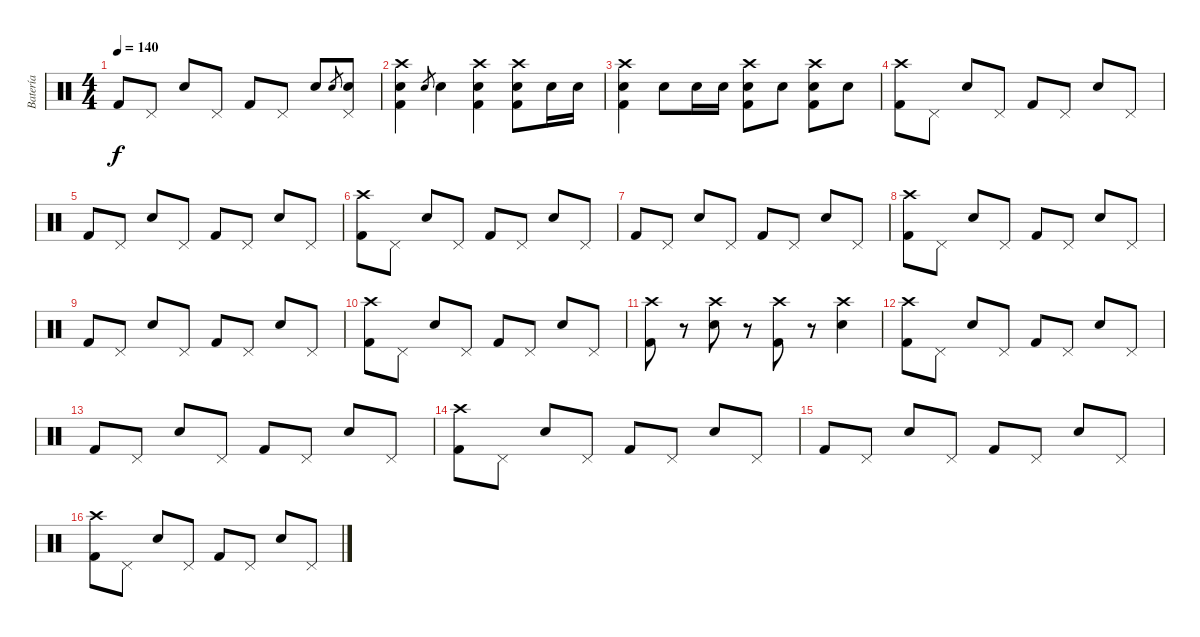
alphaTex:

\track ("Batería" "Batería") {instrument percussion}
\staff {score}
\articulation defaults
\ts (4 4)
\tempo 140
\clef neutral
\ks c "Kick (hit) 2".8{dy f} "Pedal Hi-Hat (hit)".8 "Snare (hit) 2".8 "Pedal Hi-Hat (hit)".8 "Kick (hit) 2".8 "Pedal Hi-Hat (hit)".8 "Snare (hit) 2".8 "Snare (hit) 2".8{gr}
("Pedal Hi-Hat (hit)" "Snare (hit) 2").8 |
("Crash high (hit)" "Snare (hit) 2" "Kick (hit) 2").4 "Snare (hit) 2".8{gr} "Snare (hit) 2".4 ("Crash high (hit)" "Snare (hit) 2" "Kick (hit) 2").4 ("Crash high (hit)" "Snare (hit) 2" "Kick (hit) 2").8 "Snare (hit) 2".16 "Snare (hit) 2".16 |
("Crash high (hit)" "Snare (hit) 2" "Kick (hit) 2").4 "Snare (hit) 2".8 "Snare (hit) 2".16 "Snare (hit) 2".16 ("Crash high (hit)" "Snare (hit) 2" "Kick (hit) 2").8 "Snare (hit) 2".8 ("Crash high (hit)" "Snare (hit) 2" "Kick (hit) 2").8 "Snare (hit) 2".8 |
("Crash high (hit)" "Kick (hit) 2").8 "Pedal Hi-Hat (hit)".8 "Snare (hit) 2".8 "Pedal Hi-Hat (hit)".8 "Kick (hit) 2".8 "Pedal Hi-Hat (hit)".8 "Snare (hit) 2".8 "Pedal Hi-Hat (hit)".8 |
"Kick (hit) 2".8 "Pedal Hi-Hat (hit)".8 "Snare (hit) 2".8 "Pedal Hi-Hat (hit)".8 "Kick (hit) 2".8 "Pedal Hi-Hat (hit)".8 "Snare (hit) 2".8 "Pedal Hi-Hat (hit)".8 |
("Crash high (hit)" "Kick (hit) 2").8 "Pedal Hi-Hat (hit)".8 "Snare (hit) 2".8 "Pedal Hi-Hat (hit)".8 "Kick (hit) 2".8 "Pedal Hi-Hat (hit)".8 "Snare (hit) 2".8 "Pedal Hi-Hat (hit)".8 |
"Kick (hit) 2".8 "Pedal Hi-Hat (hit)".8 "Snare (hit) 2".8 "Pedal Hi-Hat (hit)".8 "Kick (hit) 2".8 "Pedal Hi-Hat (hit)".8 "Snare (hit) 2".8 "Pedal Hi-Hat (hit)".8 |
("Crash high (hit)" "Kick (hit) 2").8 "Pedal Hi-Hat (hit)".8 "Snare (hit) 2".8 "Pedal Hi-Hat (hit)".8 "Kick (hit) 2".8 "Pedal Hi-Hat (hit)".8 "Snare (hit) 2".8 "Pedal Hi-Hat (hit)".8 |
"Kick (hit) 2".8 "Pedal Hi-Hat (hit)".8 "Snare (hit) 2".8 "Pedal Hi-Hat (hit)".8 "Kick (hit) 2".8 "Pedal Hi-Hat (hit)".8 "Snare (hit) 2".8 "Pedal Hi-Hat (hit)".8 |
("Crash high (hit)" "Kick (hit) 2").8 "Pedal Hi-Hat (hit)".8 "Snare (hit) 2".8 "Pedal Hi-Hat (hit)".8 "Kick (hit) 2".8 "Pedal Hi-Hat (hit)".8 "Snare (hit) 2".8 "Pedal Hi-Hat (hit)".8 |
("Crash high (hit)" "Kick (hit) 2").8 r.8 ("Crash high (hit)" "Snare (hit) 2").8 r.8 ("Crash high (hit)" "Kick (hit) 2").8 r.8 ("Crash high (hit)" "Snare (hit) 2").4 |
("Crash high (hit)" "Kick (hit) 2").8 "Pedal Hi-Hat (hit)".8 "Snare (hit) 2".8 "Pedal Hi-Hat (hit)".8 "Kick (hit) 2".8 "Pedal Hi-Hat (hit)".8 "Snare (hit) 2".8 "Pedal Hi-Hat (hit)".8 |
"Kick (hit) 2".8 "Pedal Hi-Hat (hit)".8 "Snare (hit) 2".8 "Pedal Hi-Hat (hit)".8 "Kick (hit) 2".8 "Pedal Hi-Hat (hit)".8 "Snare (hit) 2".8 "Pedal Hi-Hat (hit)".8 |
("Crash high (hit)" "Kick (hit) 2").8 "Pedal Hi-Hat (hit)".8 "Snare (hit) 2".8 "Pedal Hi-Hat (hit)".8 "Kick (hit) 2".8 "Pedal Hi-Hat (hit)".8 "Snare (hit) 2".8 "Pedal Hi-Hat (hit)".8 |
"Kick (hit) 2".8 "Pedal Hi-Hat (hit)".8 "Snare (hit) 2".8 "Pedal Hi-Hat (hit)".8 "Kick (hit) 2".8 "Pedal Hi-Hat (hit)".8 "Snare (hit) 2".8 "Pedal Hi-Hat (hit)".8 |
("Crash high (hit)" "Kick (hit) 2").8 "Pedal Hi-Hat (hit)".8 "Snare (hit) 2".8 "Pedal Hi-Hat (hit)".8 "Kick (hit) 2".8 "Pedal Hi-Hat (hit)".8 "Snare (hit) 2".8 "Pedal Hi-Hat (hit)".8
